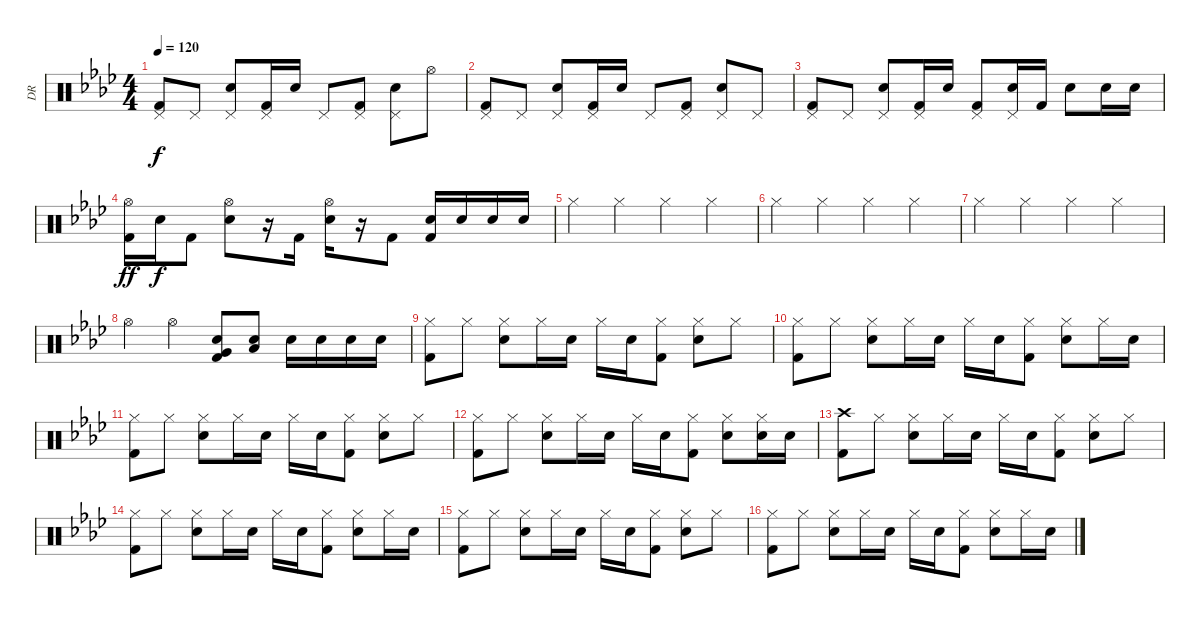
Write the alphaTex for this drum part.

\track ("DR" "DR") {instrument percussion}
\staff {score}
\articulation defaults
\ts (4 4)
\tempo 120
\clef neutral
\ks ab
("Pedal Hi-Hat (hit)" "Kick (hit) 2").8{dy f} "Pedal Hi-Hat (hit)".8 ("Pedal Hi-Hat (hit)" "Electric Snare (hit)").8 ("Pedal Hi-Hat (hit)" "Kick (hit) 2").16 "Electric Snare (hit)".16 "Pedal Hi-Hat (hit)".8 ("Pedal Hi-Hat (hit)" "Kick (hit) 2").8 ("Pedal Hi-Hat (hit)" "Electric Snare (hit)").8 "Hi-Hat (open)".8 |
("Pedal Hi-Hat (hit)" "Kick (hit) 2").8 "Pedal Hi-Hat (hit)".8 ("Pedal Hi-Hat (hit)" "Electric Snare (hit)").8 ("Pedal Hi-Hat (hit)" "Kick (hit) 2").16 "Electric Snare (hit)".16 "Pedal Hi-Hat (hit)".8 ("Pedal Hi-Hat (hit)" "Kick (hit) 2").8 ("Pedal Hi-Hat (hit)" "Electric Snare (hit)").8 "Pedal Hi-Hat (hit)".8 |
("Pedal Hi-Hat (hit)" "Kick (hit) 2").8 "Pedal Hi-Hat (hit)".8 ("Pedal Hi-Hat (hit)" "Electric Snare (hit)").8 ("Pedal Hi-Hat (hit)" "Kick (hit) 2").16 "Electric Snare (hit)".16 ("Pedal Hi-Hat (hit)" "Kick (hit) 2").8 ("Pedal Hi-Hat (hit)" "Electric Snare (hit)").16 "Kick (hit) 2".16 "Electric Snare (hit)".8 "Electric Snare (hit)".16 "Electric Snare (hit)".16 |
("Hi-Hat (open)" "Kick (hit) 2").16{dy ff} "Electric Snare (hit)".16{dy f} "Kick (hit) 2".8 ("Hi-Hat (open)" "Electric Snare (hit)").8 r.16 "Kick (hit) 2".16 ("Hi-Hat (open)" "Electric Snare (hit)").16 r.16 "Kick (hit) 2".8 ("Electric Snare (hit)" "Kick (hit) 2").16 "Electric Snare (hit)".16 "Electric Snare (hit)".16 "Electric Snare (hit)".16 |
"Hi-Hat (closed)".4 "Hi-Hat (closed)".4 "Hi-Hat (closed)".4 "Hi-Hat (closed)".4 |
"Hi-Hat (closed)".4 "Hi-Hat (closed)".4 "Hi-Hat (closed)".4 "Hi-Hat (closed)".4 |
"Hi-Hat (closed)".4 "Hi-Hat (closed)".4 "Hi-Hat (closed)".4 "Hi-Hat (closed)".4 |
"Hi-Hat (open)".4 "Hi-Hat (open)".4 ("Very Low Tom (hit)" "Electric Snare (hit)" "Kick (hit) 2").8 ("Low Floor Tom (hit)" "Electric Snare (hit)").8 "Electric Snare (hit)".16 "Electric Snare (hit)".16 "Electric Snare (hit)".16 "Electric Snare (hit)".16 |
("Hi-Hat (closed)" "Kick (hit) 2").8 "Hi-Hat (closed)".8 ("Hi-Hat (closed)" "Electric Snare (hit)").8 "Hi-Hat (closed)".16 "Electric Snare (hit)".16 "Hi-Hat (closed)".16 "Electric Snare (hit)".16 ("Hi-Hat (closed)" "Kick (hit) 2").8 ("Hi-Hat (closed)" "Electric Snare (hit)").8 "Hi-Hat (closed)".8 |
("Hi-Hat (closed)" "Kick (hit) 2").8 "Hi-Hat (closed)".8 ("Hi-Hat (closed)" "Electric Snare (hit)").8 "Hi-Hat (closed)".16 "Electric Snare (hit)".16 "Hi-Hat (closed)".16 "Electric Snare (hit)".16 ("Hi-Hat (closed)" "Kick (hit) 2").8 ("Hi-Hat (closed)" "Electric Snare (hit)").8 "Hi-Hat (closed)".16 "Electric Snare (hit)".16 |
("Hi-Hat (closed)" "Kick (hit) 2").8 "Hi-Hat (closed)".8 ("Hi-Hat (closed)" "Electric Snare (hit)").8 "Hi-Hat (closed)".16 "Electric Snare (hit)".16 "Hi-Hat (closed)".16 "Electric Snare (hit)".16 ("Hi-Hat (closed)" "Kick (hit) 2").8 ("Hi-Hat (closed)" "Electric Snare (hit)").8 "Hi-Hat (closed)".8 |
("Hi-Hat (closed)" "Kick (hit) 2").8 "Hi-Hat (closed)".8 ("Hi-Hat (closed)" "Electric Snare (hit)").8 "Hi-Hat (closed)".16 "Electric Snare (hit)".16 "Hi-Hat (closed)".16 "Electric Snare (hit)".16 ("Hi-Hat (closed)" "Kick (hit) 2").8 ("Hi-Hat (closed)" "Electric Snare (hit)").8 ("Hi-Hat (closed)" "Electric Snare (hit)").16 "Electric Snare (hit)".16 |
("Crash high (hit)" "Kick (hit) 2").8 "Hi-Hat (closed)".8 ("Hi-Hat (closed)" "Electric Snare (hit)").8 "Hi-Hat (closed)".16 "Electric Snare (hit)".16 "Hi-Hat (closed)".16 "Electric Snare (hit)".16 ("Hi-Hat (closed)" "Kick (hit) 2").8 ("Hi-Hat (closed)" "Electric Snare (hit)").8 "Hi-Hat (closed)".8 |
("Hi-Hat (closed)" "Kick (hit) 2").8 "Hi-Hat (closed)".8 ("Hi-Hat (closed)" "Electric Snare (hit)").8 "Hi-Hat (closed)".16 "Electric Snare (hit)".16 "Hi-Hat (closed)".16 "Electric Snare (hit)".16 ("Hi-Hat (closed)" "Kick (hit) 2").8 ("Hi-Hat (closed)" "Electric Snare (hit)").8 "Hi-Hat (closed)".16 "Electric Snare (hit)".16 |
("Hi-Hat (closed)" "Kick (hit) 2").8 "Hi-Hat (closed)".8 ("Hi-Hat (closed)" "Electric Snare (hit)").8 "Hi-Hat (closed)".16 "Electric Snare (hit)".16 "Hi-Hat (closed)".16 "Electric Snare (hit)".16 ("Hi-Hat (closed)" "Kick (hit) 2").8 ("Hi-Hat (closed)" "Electric Snare (hit)").8 "Hi-Hat (closed)".8 |
("Hi-Hat (closed)" "Kick (hit) 2").8 "Hi-Hat (closed)".8 ("Hi-Hat (closed)" "Electric Snare (hit)").8 "Hi-Hat (closed)".16 "Electric Snare (hit)".16 "Hi-Hat (closed)".16 "Electric Snare (hit)".16 ("Hi-Hat (closed)" "Kick (hit) 2").8 ("Hi-Hat (closed)" "Electric Snare (hit)").8 "Hi-Hat (closed)".16 "Electric Snare (hit)".16
